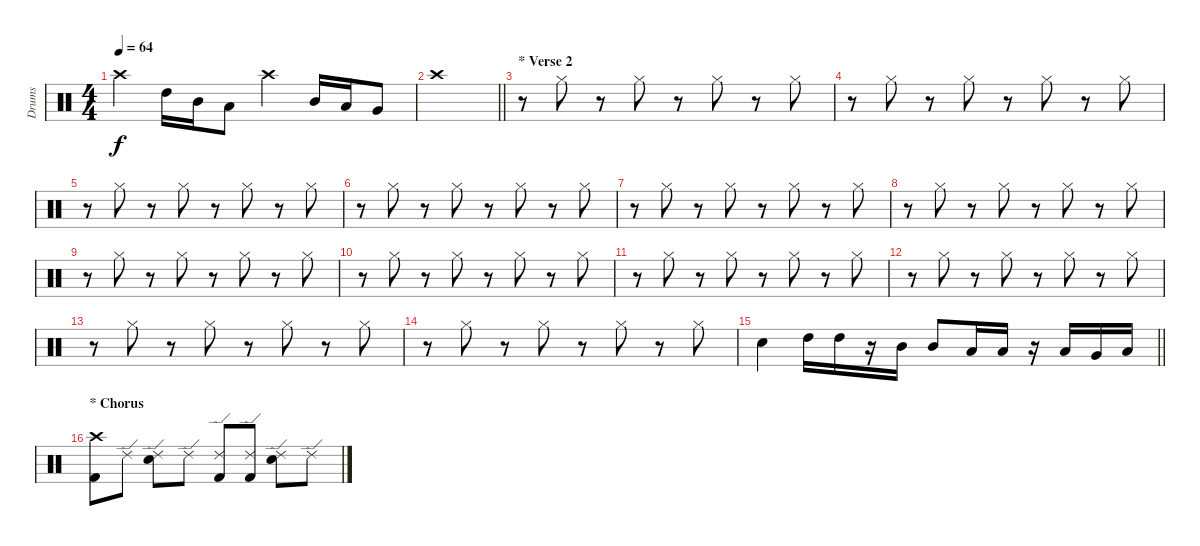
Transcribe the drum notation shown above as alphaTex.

\track ("Drums" "Drums") {instrument percussion}
\staff {score}
\articulation defaults
\ts (4 4)
\tempo 64
\clef neutral
\ks c "Crash high (hit)".4{dy f} "High Tom (hit)".16 "Mid Tom (hit)".16 "Low Tom (hit)".8 "Crash high (hit)".4 "Mid Tom (hit)".16 "Low Tom (hit)".16 "Very Low Tom (hit)".8
|
\barLineRight lightlight "Crash high (hit)".1
|
\section ("" "* Verse 2")
r.8 "Hi-Hat (closed)".8 r.8 "Hi-Hat (closed)".8 r.8 "Hi-Hat (closed)".8 r.8 "Hi-Hat (closed)".8 |
r.8 "Hi-Hat (closed)".8 r.8 "Hi-Hat (closed)".8 r.8 "Hi-Hat (closed)".8 r.8 "Hi-Hat (closed)".8 |
r.8 "Hi-Hat (closed)".8 r.8 "Hi-Hat (closed)".8 r.8 "Hi-Hat (closed)".8 r.8 "Hi-Hat (closed)".8 |
r.8 "Hi-Hat (closed)".8 r.8 "Hi-Hat (closed)".8 r.8 "Hi-Hat (closed)".8 r.8 "Hi-Hat (closed)".8 |
r.8 "Hi-Hat (closed)".8 r.8 "Hi-Hat (closed)".8 r.8 "Hi-Hat (closed)".8 r.8 "Hi-Hat (closed)".8 |
r.8 "Hi-Hat (closed)".8 r.8 "Hi-Hat (closed)".8 r.8 "Hi-Hat (closed)".8 r.8 "Hi-Hat (closed)".8 |
r.8 "Hi-Hat (closed)".8 r.8 "Hi-Hat (closed)".8 r.8 "Hi-Hat (closed)".8 r.8 "Hi-Hat (closed)".8 |
r.8 "Hi-Hat (closed)".8 r.8 "Hi-Hat (closed)".8 r.8 "Hi-Hat (closed)".8 r.8 "Hi-Hat (closed)".8 |
r.8 "Hi-Hat (closed)".8 r.8 "Hi-Hat (closed)".8 r.8 "Hi-Hat (closed)".8 r.8 "Hi-Hat (closed)".8 |
r.8 "Hi-Hat (closed)".8 r.8 "Hi-Hat (closed)".8 r.8 "Hi-Hat (closed)".8 r.8 "Hi-Hat (closed)".8 |
r.8 "Hi-Hat (closed)".8 r.8 "Hi-Hat (closed)".8 r.8 "Hi-Hat (closed)".8 r.8 "Hi-Hat (closed)".8 |
r.8 "Hi-Hat (closed)".8 r.8 "Hi-Hat (closed)".8 r.8 "Hi-Hat (closed)".8 r.8 "Hi-Hat (closed)".8 |
\barLineRight lightlight "Electric Snare (hit)".4 "High Tom (hit)".16 "High Tom (hit)".16
r.16 "Mid Tom (hit)".16 "Mid Tom (hit)".8 "Low Tom (hit)".16 "Low Tom (hit)".16 r.16 "Low Tom (hit)".16 "Very Low Tom (hit)".16 "Low Floor Tom (hit)".16 |
\section ("" "* Chorus")
("Crash high (hit)" "Kick (hit) 2").8 "Ride (edge) 2".8 ("Ride (edge) 2" "Electric Snare (hit)").8 "Ride (edge) 2".8 ("Ride (edge) 2" "Kick (hit) 2").8 ("Ride (edge) 2" "Kick (hit) 2").8 ("Ride (edge) 2" "Electric Snare (hit)").8 "Ride (edge) 2".8
